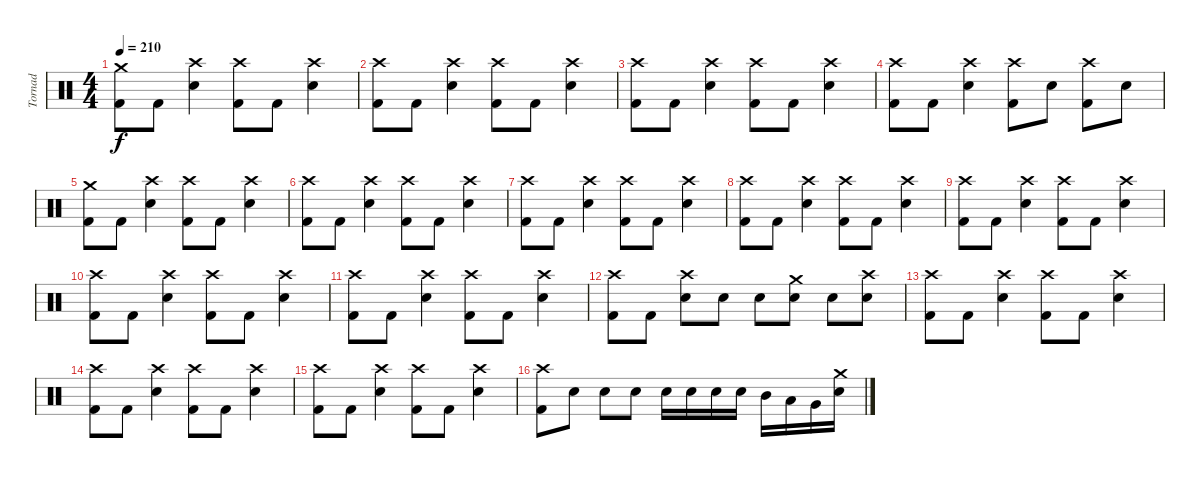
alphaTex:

\track ("Tornad" "Tornad") {instrument percussion}
\staff {score}
\articulation defaults
\ts (4 4)
\tempo 210
\clef neutral
\ks c
("Crash medium (hit)" "Kick (hit) 2").8{dy f} "Kick (hit) 2".8 ("Crash high (hit)" "Electric Snare (hit)").4 ("Crash high (hit)" "Kick (hit) 2").8 "Kick (hit) 2".8 ("Crash high (hit)" "Electric Snare (hit)").4 |
("Crash high (hit)" "Kick (hit) 2").8 "Kick (hit) 2".8 ("Crash high (hit)" "Electric Snare (hit)").4 ("Crash high (hit)" "Kick (hit) 2").8 "Kick (hit) 2".8 ("Crash high (hit)" "Electric Snare (hit)").4 |
("Crash high (hit)" "Kick (hit) 2").8 "Kick (hit) 2".8 ("Crash high (hit)" "Electric Snare (hit)").4 ("Crash high (hit)" "Kick (hit) 2").8 "Kick (hit) 2".8 ("Crash high (hit)" "Electric Snare (hit)").4 |
("Crash high (hit)" "Kick (hit) 2").8 "Kick (hit) 2".8 ("Crash high (hit)" "Electric Snare (hit)").4 ("Crash high (hit)" "Kick (hit) 2").8 "Electric Snare (hit)".8 ("Crash high (hit)" "Kick (hit) 2").8 "Electric Snare (hit)".8 |
("Crash medium (hit)" "Kick (hit) 2").8 "Kick (hit) 2".8 ("Crash high (hit)" "Electric Snare (hit)").4 ("Crash high (hit)" "Kick (hit) 2").8 "Kick (hit) 2".8 ("Crash high (hit)" "Electric Snare (hit)").4 |
("Crash high (hit)" "Kick (hit) 2").8 "Kick (hit) 2".8 ("Crash high (hit)" "Electric Snare (hit)").4 ("Crash high (hit)" "Kick (hit) 2").8 "Kick (hit) 2".8 ("Crash high (hit)" "Electric Snare (hit)").4 |
("Crash high (hit)" "Kick (hit) 2").8 "Kick (hit) 2".8 ("Crash high (hit)" "Electric Snare (hit)").4 ("Crash high (hit)" "Kick (hit) 2").8 "Kick (hit) 2".8 ("Crash high (hit)" "Electric Snare (hit)").4 |
("Crash high (hit)" "Kick (hit) 2").8 "Kick (hit) 2".8 ("Crash high (hit)" "Electric Snare (hit)").4 ("Crash high (hit)" "Kick (hit) 2").8 "Kick (hit) 2".8 ("Crash high (hit)" "Electric Snare (hit)").4 |
("Crash high (hit)" "Kick (hit) 2").8 "Kick (hit) 2".8 ("Crash high (hit)" "Electric Snare (hit)").4 ("Crash high (hit)" "Kick (hit) 2").8 "Kick (hit) 2".8 ("Crash high (hit)" "Electric Snare (hit)").4 |
("Crash high (hit)" "Kick (hit) 2").8 "Kick (hit) 2".8 ("Crash high (hit)" "Electric Snare (hit)").4 ("Crash high (hit)" "Kick (hit) 2").8 "Kick (hit) 2".8 ("Crash high (hit)" "Electric Snare (hit)").4 |
("Crash high (hit)" "Kick (hit) 2").8 "Kick (hit) 2".8 ("Crash high (hit)" "Electric Snare (hit)").4 ("Crash high (hit)" "Kick (hit) 2").8 "Kick (hit) 2".8 ("Crash high (hit)" "Electric Snare (hit)").4 |
("Crash high (hit)" "Kick (hit) 2").8 "Kick (hit) 2".8 ("Crash high (hit)" "Electric Snare (hit)").8 "Electric Snare (hit)".8 "Electric Snare (hit)".8 ("Crash medium (hit)" "Electric Snare (hit)").8 "Electric Snare (hit)".8 ("Crash high (hit)" "Electric Snare (hit)").8 |
("Crash high (hit)" "Kick (hit) 2").8 "Kick (hit) 2".8 ("Crash high (hit)" "Electric Snare (hit)").4 ("Crash high (hit)" "Kick (hit) 2").8 "Kick (hit) 2".8 ("Crash high (hit)" "Electric Snare (hit)").4 |
("Crash high (hit)" "Kick (hit) 2").8 "Kick (hit) 2".8 ("Crash high (hit)" "Electric Snare (hit)").4 ("Crash high (hit)" "Kick (hit) 2").8 "Kick (hit) 2".8 ("Crash high (hit)" "Electric Snare (hit)").4 |
("Crash high (hit)" "Kick (hit) 2").8 "Kick (hit) 2".8 ("Crash high (hit)" "Electric Snare (hit)").4 ("Crash high (hit)" "Kick (hit) 2").8 "Kick (hit) 2".8 ("Crash high (hit)" "Electric Snare (hit)").4 |
("Crash high (hit)" "Kick (hit) 2").8 "Electric Snare (hit)".8 "Electric Snare (hit)".8 "Electric Snare (hit)".8 "Electric Snare (hit)".16 "Electric Snare (hit)".16 "Electric Snare (hit)".16 "Electric Snare (hit)".16 "Mid Tom (hit)".16 "Low Tom (hit)".16 "Very Low Tom (hit)".16 ("Crash medium (hit)" "Electric Snare (hit)").16
